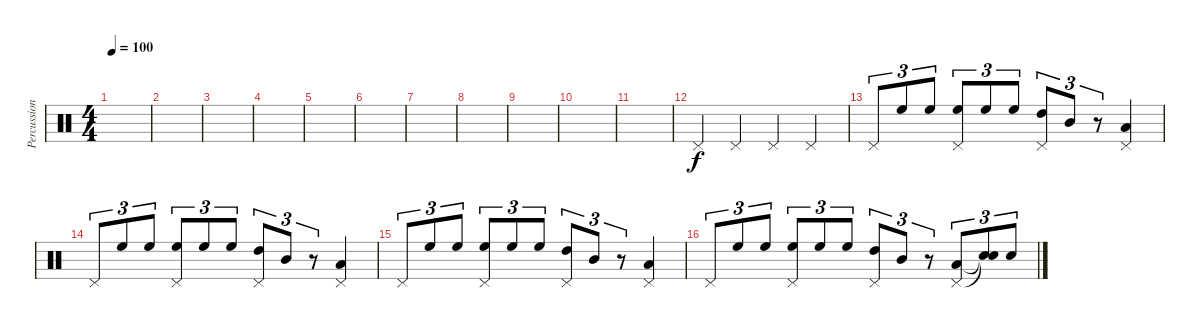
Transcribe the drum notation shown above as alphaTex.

\track ("Percussions" "Percussion") {instrument percussion}
\staff {score}
\articulation defaults
\ts (4 4)
\tempo 100
\clef neutral
\ks c
|
|
|
|
|
|
|
|
|
|
|
"Pedal Hi-Hat (hit)".4 "Pedal Hi-Hat (hit)".4 "Pedal Hi-Hat (hit)".4 "Pedal Hi-Hat (hit)".4 |
"Pedal Hi-Hat (hit)".8{tu (3 2)} "High Floor Tom (hit)".8{tu (3 2)} "High Floor Tom (hit)".8{tu (3 2)} ("High Floor Tom (hit)" "Pedal Hi-Hat (hit)").8{tu (3 2)} "High Floor Tom (hit)".8{tu (3 2)} "High Floor Tom (hit)".8{tu (3 2)} ("High Tom (hit)" "Pedal Hi-Hat (hit)").8{tu (3 2)} "Mid Tom (hit)".8{tu (3 2)} r.8{tu (3 2)} ("Low Tom (hit)" "Pedal Hi-Hat (hit)").4 |
"Pedal Hi-Hat (hit)".8{tu (3 2)} "High Floor Tom (hit)".8{tu (3 2)} "High Floor Tom (hit)".8{tu (3 2)} ("High Floor Tom (hit)" "Pedal Hi-Hat (hit)").8{tu (3 2)} "High Floor Tom (hit)".8{tu (3 2)} "High Floor Tom (hit)".8{tu (3 2)} ("High Tom (hit)" "Pedal Hi-Hat (hit)").8{tu (3 2)} "Mid Tom (hit)".8{tu (3 2)} r.8{tu (3 2)} ("Low Tom (hit)" "Pedal Hi-Hat (hit)").4 |
"Pedal Hi-Hat (hit)".8{tu (3 2)} "High Floor Tom (hit)".8{tu (3 2)} "High Floor Tom (hit)".8{tu (3 2)} ("High Floor Tom (hit)" "Pedal Hi-Hat (hit)").8{tu (3 2)} "High Floor Tom (hit)".8{tu (3 2)} "High Floor Tom (hit)".8{tu (3 2)} ("High Tom (hit)" "Pedal Hi-Hat (hit)").8{tu (3 2)} "Mid Tom (hit)".8{tu (3 2)} r.8{tu (3 2)} ("Low Tom (hit)" "Pedal Hi-Hat (hit)").4 |
"Pedal Hi-Hat (hit)".8{tu (3 2)} "High Floor Tom (hit)".8{tu (3 2)} "High Floor Tom (hit)".8{tu (3 2)} ("High Floor Tom (hit)" "Pedal Hi-Hat (hit)").8{tu (3 2)} "High Floor Tom (hit)".8{tu (3 2)} "High Floor Tom (hit)".8{tu (3 2)} ("High Tom (hit)" "Pedal Hi-Hat (hit)").8{tu (3 2)} "Mid Tom (hit)".8{tu (3 2)} r.8{tu (3 2)} ("Low Tom (hit)" "Pedal Hi-Hat (hit)").8{tu (3 2)} ("Snare (hit)"{t} "Snare (hit)"{t}).8{tu (3 2)} "Electric Snare (hit)".8{tu (3 2)}
